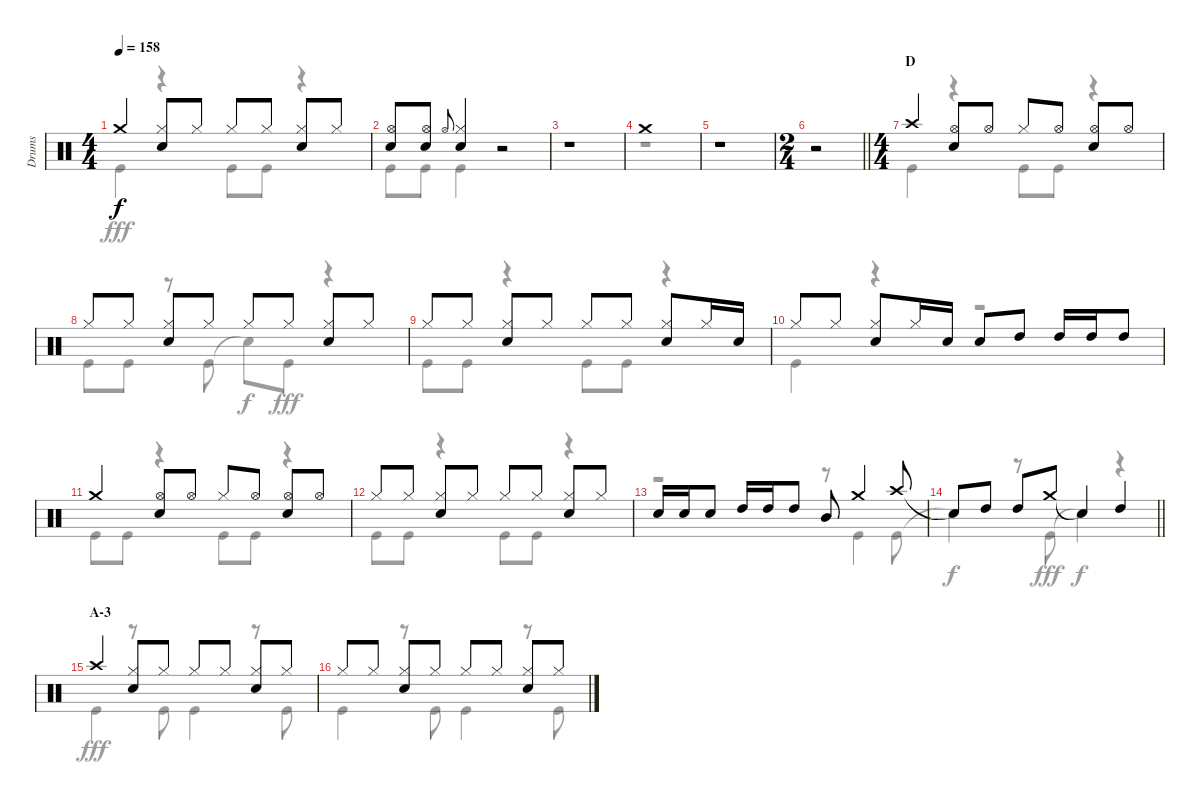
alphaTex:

\track ("Drums" "Drums") {instrument percussion}
\staff {score}
\articulation defaults
\voice
\ts (4 4)
\tempo 158
\clef neutral
\ks c "Crash medium (hit)".4{dy f}
("Hi-Hat (closed)" "Snare (hit) 2").8 "Hi-Hat (closed)".8 "Hi-Hat (closed)".8 "Hi-Hat (closed)".8 ("Hi-Hat (closed)" "Snare (hit) 2").8 "Hi-Hat (closed)".8 |
("Hi-Hat (open)" "Snare (hit) 2").8 ("Hi-Hat (open)" "Snare (hit) 2").8 "Hi-Hat (open)".8{gr onbeat} ("Hi-Hat (closed)" "Snare (hit) 2").4 r.2 |
r.1 |
"Crash medium (hit)".1 |
r.1 |
\ts (2 4)
\barLineRight lightlight
r.2 |
\ts (4 4)
\section ("" "D")
"Crash high (hit)".4 ("Hi-Hat (open)" "Snare (hit) 2").8 "Hi-Hat (open)".8 "Hi-Hat (closed)".8 "Hi-Hat (open)".8 ("Hi-Hat (open)" "Snare (hit) 2").8 "Hi-Hat (open)".8 |
"Hi-Hat (closed)".8 "Hi-Hat (closed)".8 ("Hi-Hat (closed)" "Snare (hit) 2").8 "Hi-Hat (closed)".8 "Hi-Hat (closed)".8 "Hi-Hat (closed)".8 ("Hi-Hat (closed)" "Snare (hit) 2").8 "Hi-Hat (closed)".8 |
"Hi-Hat (closed)".8 "Hi-Hat (closed)".8 ("Hi-Hat (closed)" "Snare (hit) 2").8 "Hi-Hat (closed)".8 "Hi-Hat (closed)".8 "Hi-Hat (closed)".8 ("Hi-Hat (closed)" "Snare (hit) 2").8 "Hi-Hat (closed)".16 "Snare (hit) 2".16 |
"Hi-Hat (closed)".8 "Hi-Hat (closed)".8 ("Hi-Hat (closed)" "Snare (hit) 2").8 "Hi-Hat (closed)".16 "Snare (hit) 2".16 "Snare (hit) 2".8 "High Tom (hit)".8 "High Tom (hit)".16 "High Tom (hit)".16 "High Tom (hit)".8 |
"Crash medium (hit)".4 ("Hi-Hat (open)" "Snare (hit) 2").8 "Hi-Hat (open)".8 "Hi-Hat (closed)".8 "Hi-Hat (open)".8 ("Hi-Hat (open)" "Snare (hit) 2").8 "Hi-Hat (open)".8 |
"Hi-Hat (closed)".8 "Hi-Hat (closed)".8 ("Hi-Hat (closed)" "Snare (hit) 2").8 "Hi-Hat (closed)".8 "Hi-Hat (closed)".8 "Hi-Hat (closed)".8 ("Hi-Hat (closed)" "Snare (hit) 2").8 "Hi-Hat (closed)".8 |
"Snare (hit) 2".16 "Snare (hit) 2".16 "Snare (hit) 2".8 "High Tom (hit)".16 "High Tom (hit)".16 "High Tom (hit)".8 "Mid Tom (hit)".8 "Crash medium (hit)".4 "Crash high (hit)".8 |
\barLineRight lightlight "Snare (hit)"{t}.8 "High Tom (hit)".8 "High Tom (hit)".8 "Crash medium (hit)".8 "Snare (hit)"{t}.4 "High Tom (hit)".4
|
\section ("" "A-3")
"Crash high (hit)".4 ("Hi-Hat (closed)" "Snare (hit) 2").8 "Hi-Hat (closed)".8 "Hi-Hat (closed)".8 "Hi-Hat (closed)".8 ("Hi-Hat (closed)" "Snare (hit) 2").8 "Hi-Hat (closed)".8 |
"Hi-Hat (closed)".8 "Hi-Hat (closed)".8 ("Hi-Hat (closed)" "Snare (hit) 2").8 "Hi-Hat (closed)".8 "Hi-Hat (closed)".8 "Hi-Hat (closed)".8 ("Hi-Hat (closed)" "Snare (hit) 2").8 "Hi-Hat (closed)".8
\voice
\clef neutral
\ottava regular
\simile none
\ks c "Kick (hit)".4{dy fff}
r.4 "Kick (hit)".8 "Kick (hit)".8 r.4 |
"Kick (hit)".8 "Kick (hit)".8 "Kick (hit)".4 r.2 |
r.1 |
r.1 |
r.1 |
\barLineRight lightlight
r.2 |
"Kick (hit)".4 r.4 "Kick (hit)".8 "Kick (hit)".8 r.4 |
"Kick (hit)".8 "Kick (hit)".8 r.8 "Kick (hit)".8 "Snare (hit)"{t}.8{dy f} "Kick (hit)".8{dy fff} r.4 |
"Kick (hit)".8 "Kick (hit)".8 r.4 "Kick (hit)".8 "Kick (hit)".8 r.4 |
"Kick (hit)".4 r.4 r.2 |
"Kick (hit)".8 "Kick (hit)".8 r.4 "Kick (hit)".8 "Kick (hit)".8 r.4 |
"Kick (hit)".8 "Kick (hit)".8 r.4 "Kick (hit)".8 "Kick (hit)".8 r.4 |
r.2 r.8 "Kick (hit)".4 "Kick (hit)".8 |
\barLineRight lightlight "Snare (hit)"{t}.4{dy f}
r.8 "Kick (hit)".8{dy fff} "Snare (hit)"{t}.4{dy f} r.4 |
"Kick (hit)".4{dy fff} r.8 "Kick (hit)".8 "Kick (hit)".4 r.8 "Kick (hit)".8 |
"Kick (hit)".4 r.8 "Kick (hit)".8 "Kick (hit)".4 r.8 "Kick (hit)".8
